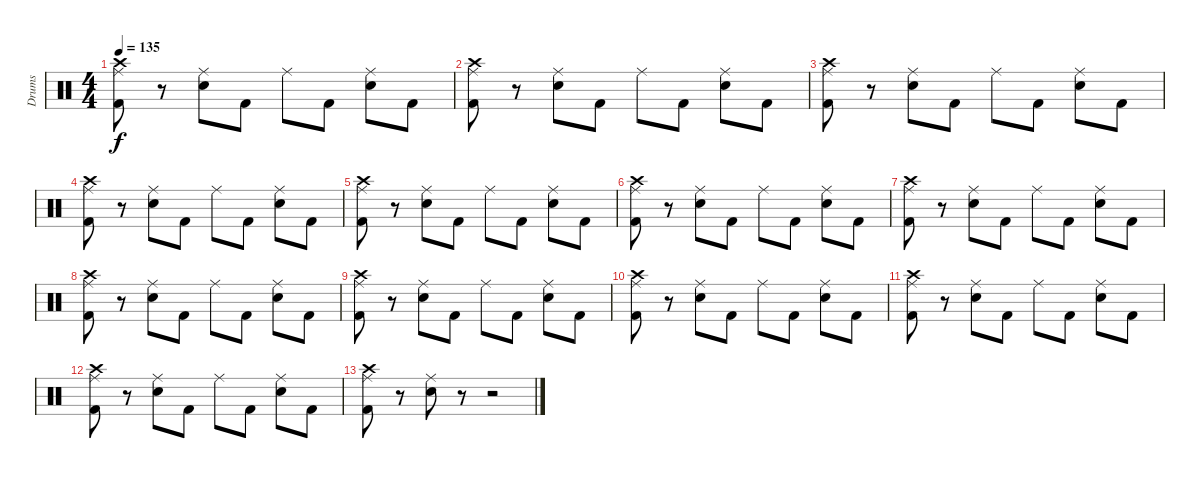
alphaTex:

\track ("Drums" "Drums") {instrument percussion}
\staff {score}
\articulation defaults
\ts (4 4)
\tempo 135
\clef neutral
\ks c
("Ride (middle)" "Kick (hit) 2" "Crash high (hit)").8{dy f} r.8 ("Ride (middle)" "Snare (hit) 2").8 "Kick (hit) 2".8 "Ride (middle)".8 "Kick (hit) 2".8 ("Ride (middle)" "Snare (hit) 2").8 "Kick (hit) 2".8 |
("Ride (middle)" "Kick (hit) 2" "Crash high (hit)").8 r.8 ("Ride (middle)" "Snare (hit) 2").8 "Kick (hit) 2".8 "Ride (middle)".8 "Kick (hit) 2".8 ("Ride (middle)" "Snare (hit) 2").8 "Kick (hit) 2".8 |
("Ride (middle)" "Kick (hit) 2" "Crash high (hit)").8 r.8 ("Ride (middle)" "Snare (hit) 2").8 "Kick (hit) 2".8 "Ride (middle)".8 "Kick (hit) 2".8 ("Ride (middle)" "Snare (hit) 2").8 "Kick (hit) 2".8 |
("Ride (middle)" "Kick (hit) 2" "Crash high (hit)").8 r.8 ("Ride (middle)" "Snare (hit) 2").8 "Kick (hit) 2".8 "Ride (middle)".8 "Kick (hit) 2".8 ("Ride (middle)" "Snare (hit) 2").8 "Kick (hit) 2".8 |
("Ride (middle)" "Kick (hit) 2" "Crash high (hit)").8 r.8 ("Ride (middle)" "Snare (hit) 2").8 "Kick (hit) 2".8 "Ride (middle)".8 "Kick (hit) 2".8 ("Ride (middle)" "Snare (hit) 2").8 "Kick (hit) 2".8 |
("Ride (middle)" "Kick (hit) 2" "Crash high (hit)").8 r.8 ("Ride (middle)" "Snare (hit) 2").8 "Kick (hit) 2".8 "Ride (middle)".8 "Kick (hit) 2".8 ("Ride (middle)" "Snare (hit) 2").8 "Kick (hit) 2".8 |
("Ride (middle)" "Kick (hit) 2" "Crash high (hit)").8 r.8 ("Ride (middle)" "Snare (hit) 2").8 "Kick (hit) 2".8 "Ride (middle)".8 "Kick (hit) 2".8 ("Ride (middle)" "Snare (hit) 2").8 "Kick (hit) 2".8 |
("Ride (middle)" "Kick (hit) 2" "Crash high (hit)").8 r.8 ("Ride (middle)" "Snare (hit) 2").8 "Kick (hit) 2".8 "Ride (middle)".8 "Kick (hit) 2".8 ("Ride (middle)" "Snare (hit) 2").8 "Kick (hit) 2".8 |
("Ride (middle)" "Kick (hit) 2" "Crash high (hit)").8 r.8 ("Ride (middle)" "Snare (hit) 2").8 "Kick (hit) 2".8 "Ride (middle)".8 "Kick (hit) 2".8 ("Ride (middle)" "Snare (hit) 2").8 "Kick (hit) 2".8 |
("Ride (middle)" "Kick (hit) 2" "Crash high (hit)").8 r.8 ("Ride (middle)" "Snare (hit) 2").8 "Kick (hit) 2".8 "Ride (middle)".8 "Kick (hit) 2".8 ("Ride (middle)" "Snare (hit) 2").8 "Kick (hit) 2".8 |
("Ride (middle)" "Kick (hit) 2" "Crash high (hit)").8 r.8 ("Ride (middle)" "Snare (hit) 2").8 "Kick (hit) 2".8 "Ride (middle)".8 "Kick (hit) 2".8 ("Ride (middle)" "Snare (hit) 2").8 "Kick (hit) 2".8 |
("Ride (middle)" "Kick (hit) 2" "Crash high (hit)").8 r.8 ("Ride (middle)" "Snare (hit) 2").8 "Kick (hit) 2".8 "Ride (middle)".8 "Kick (hit) 2".8 ("Ride (middle)" "Snare (hit) 2").8 "Kick (hit) 2".8 |
("Ride (middle)" "Kick (hit) 2" "Crash high (hit)").8 r.8 ("Ride (middle)" "Snare (hit) 2").8 r.8 r.2
